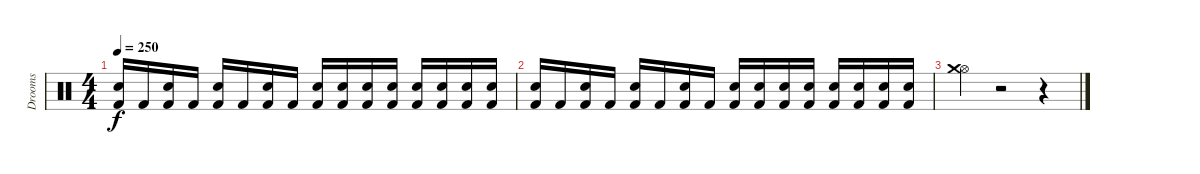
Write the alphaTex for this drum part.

\track ("Drooms" "Drooms") {instrument percussion}
\staff {score}
\articulation defaults
\ts (4 4)
\tempo 250
\clef neutral
\ks c
("Kick (hit) 2" "Snare (hit) 2").16{dy f} "Kick (hit) 2".16 ("Kick (hit) 2" "Snare (hit) 2").16 "Kick (hit) 2".16 ("Kick (hit) 2" "Snare (hit) 2").16 "Kick (hit) 2".16 ("Kick (hit) 2" "Snare (hit) 2").16 "Kick (hit) 2".16 ("Kick (hit) 2" "Snare (hit) 2").16 ("Kick (hit) 2" "Snare (hit) 2").16 ("Kick (hit) 2" "Snare (hit) 2").16 ("Kick (hit) 2" "Snare (hit) 2").16 ("Kick (hit) 2" "Snare (hit) 2").16 ("Kick (hit) 2" "Snare (hit) 2").16 ("Kick (hit) 2" "Snare (hit) 2").16 ("Kick (hit) 2" "Snare (hit) 2").16 |
("Kick (hit) 2" "Snare (hit) 2").16 "Kick (hit) 2".16 ("Kick (hit) 2" "Snare (hit) 2").16 "Kick (hit) 2".16 ("Kick (hit) 2" "Snare (hit) 2").16 "Kick (hit) 2".16 ("Kick (hit) 2" "Snare (hit) 2").16 "Kick (hit) 2".16 ("Kick (hit) 2" "Snare (hit) 2").16 ("Kick (hit) 2" "Snare (hit) 2").16 ("Kick (hit) 2" "Snare (hit) 2").16 ("Kick (hit) 2" "Snare (hit) 2").16 ("Kick (hit) 2" "Snare (hit) 2").16 ("Kick (hit) 2" "Snare (hit) 2").16 ("Kick (hit) 2" "Snare (hit) 2").16 ("Kick (hit) 2" "Snare (hit) 2").16 |
("Hi-Hat (open)" "Crash medium (hit)").4 r.2 r.4
